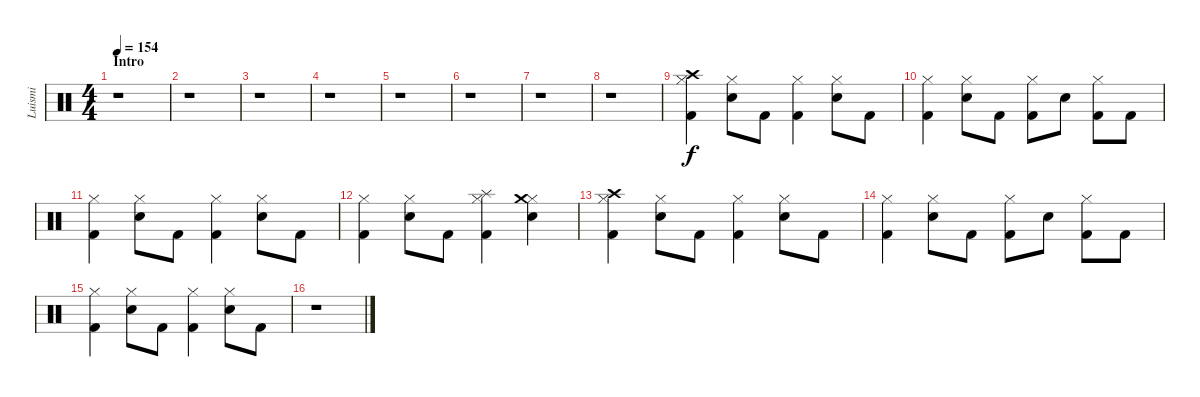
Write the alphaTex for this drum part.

\track ("Luismi" "Luismi") {instrument percussion}
\staff {score}
\articulation defaults
\ts (4 4)
\section ("" "Intro")
\tempo 154
\clef neutral
\ks c
r.1{dy f} |
r.1 |
r.1 |
r.1 |
r.1 |
r.1 |
r.1 |
r.1 |
("Kick (hit) 2" "Hi-Hat (closed)" "Crash high (hit)").4 ("Snare (hit) 2" "Hi-Hat (closed)").8 "Kick (hit) 2".8 ("Kick (hit) 2" "Hi-Hat (closed)").4 ("Snare (hit) 2" "Hi-Hat (closed)").8 "Kick (hit) 2".8 |
("Kick (hit) 2" "Hi-Hat (closed)").4 ("Snare (hit) 2" "Hi-Hat (closed)").8 "Kick (hit) 2".8 ("Kick (hit) 2" "Hi-Hat (closed)").8 "Snare (hit) 2".8 ("Kick (hit) 2" "Hi-Hat (closed)").8 "Kick (hit) 2".8 |
("Kick (hit) 2" "Hi-Hat (closed)").4 ("Snare (hit) 2" "Hi-Hat (closed)").8 "Kick (hit) 2".8 ("Kick (hit) 2" "Hi-Hat (closed)").4 ("Snare (hit) 2" "Hi-Hat (closed)").8 "Kick (hit) 2".8 |
("Kick (hit) 2" "Hi-Hat (closed)").4 ("Snare (hit) 2" "Hi-Hat (closed)").8 "Kick (hit) 2".8 ("Kick (hit) 2" "Hi-Hat (closed)" "Splash (hit)").4 ("Snare (hit) 2" "Hi-Hat (closed)" "Crash medium (hit)").4 |
("Kick (hit) 2" "Hi-Hat (closed)" "Crash high (hit)").4 ("Snare (hit) 2" "Hi-Hat (closed)").8 "Kick (hit) 2".8 ("Kick (hit) 2" "Hi-Hat (closed)").4 ("Snare (hit) 2" "Hi-Hat (closed)").8 "Kick (hit) 2".8 |
("Kick (hit) 2" "Hi-Hat (closed)").4 ("Snare (hit) 2" "Hi-Hat (closed)").8 "Kick (hit) 2".8 ("Kick (hit) 2" "Hi-Hat (closed)").8 "Snare (hit) 2".8 ("Kick (hit) 2" "Hi-Hat (closed)").8 "Kick (hit) 2".8 |
("Kick (hit) 2" "Hi-Hat (closed)").4 ("Snare (hit) 2" "Hi-Hat (closed)").8 "Kick (hit) 2".8 ("Kick (hit) 2" "Hi-Hat (closed)").4 ("Snare (hit) 2" "Hi-Hat (closed)").8 "Kick (hit) 2".8 |
r.1
